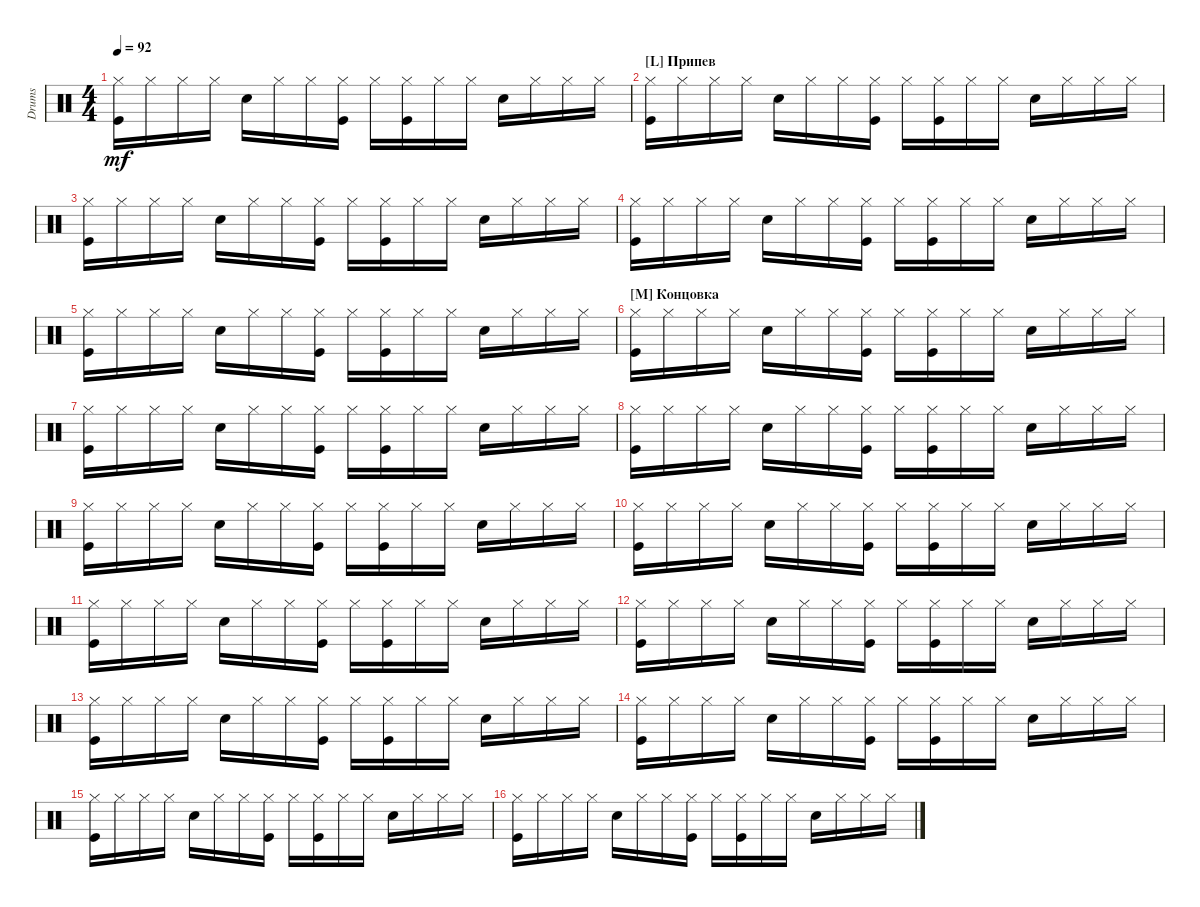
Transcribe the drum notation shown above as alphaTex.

\track ("Drumkit" "Drums") {instrument percussion}
\staff {score}
\articulation defaults
\ts (4 4)
\tempo 92
\clef neutral
\ks c
("Kick (hit)" "Hi-Hat (closed)").16{dy mf} "Hi-Hat (closed)".16 "Hi-Hat (closed)".16 "Hi-Hat (closed)".16 "Snare (hit) 2".16 "Hi-Hat (closed)".16 "Hi-Hat (closed)".16 ("Hi-Hat (closed)" "Kick (hit)").16 "Hi-Hat (closed)".16 ("Hi-Hat (closed)" "Kick (hit)").16 "Hi-Hat (closed)".16 "Hi-Hat (closed)".16 "Snare (hit) 2".16 "Hi-Hat (closed)".16 "Hi-Hat (closed)".16 "Hi-Hat (closed)".16 |
\section ("L" "Припев")
("Kick (hit)" "Hi-Hat (closed)").16 "Hi-Hat (closed)".16 "Hi-Hat (closed)".16 "Hi-Hat (closed)".16 "Snare (hit) 2".16 "Hi-Hat (closed)".16 "Hi-Hat (closed)".16 ("Hi-Hat (closed)" "Kick (hit)").16 "Hi-Hat (closed)".16 ("Hi-Hat (closed)" "Kick (hit)").16 "Hi-Hat (closed)".16 "Hi-Hat (closed)".16 "Snare (hit) 2".16 "Hi-Hat (closed)".16 "Hi-Hat (closed)".16 "Hi-Hat (closed)".16 |
("Kick (hit)" "Hi-Hat (closed)").16 "Hi-Hat (closed)".16 "Hi-Hat (closed)".16 "Hi-Hat (closed)".16 "Snare (hit) 2".16 "Hi-Hat (closed)".16 "Hi-Hat (closed)".16 ("Hi-Hat (closed)" "Kick (hit)").16 "Hi-Hat (closed)".16 ("Hi-Hat (closed)" "Kick (hit)").16 "Hi-Hat (closed)".16 "Hi-Hat (closed)".16 "Snare (hit) 2".16 "Hi-Hat (closed)".16 "Hi-Hat (closed)".16 "Hi-Hat (closed)".16 |
("Kick (hit)" "Hi-Hat (closed)").16 "Hi-Hat (closed)".16 "Hi-Hat (closed)".16 "Hi-Hat (closed)".16 "Snare (hit) 2".16 "Hi-Hat (closed)".16 "Hi-Hat (closed)".16 ("Hi-Hat (closed)" "Kick (hit)").16 "Hi-Hat (closed)".16 ("Hi-Hat (closed)" "Kick (hit)").16 "Hi-Hat (closed)".16 "Hi-Hat (closed)".16 "Snare (hit) 2".16 "Hi-Hat (closed)".16 "Hi-Hat (closed)".16 "Hi-Hat (closed)".16 |
("Kick (hit)" "Hi-Hat (closed)").16 "Hi-Hat (closed)".16 "Hi-Hat (closed)".16 "Hi-Hat (closed)".16 "Snare (hit) 2".16 "Hi-Hat (closed)".16 "Hi-Hat (closed)".16 ("Hi-Hat (closed)" "Kick (hit)").16 "Hi-Hat (closed)".16 ("Hi-Hat (closed)" "Kick (hit)").16 "Hi-Hat (closed)".16 "Hi-Hat (closed)".16 "Snare (hit) 2".16 "Hi-Hat (closed)".16 "Hi-Hat (closed)".16 "Hi-Hat (closed)".16 |
\section ("M" "Концовка")
("Kick (hit)" "Hi-Hat (closed)").16 "Hi-Hat (closed)".16 "Hi-Hat (closed)".16 "Hi-Hat (closed)".16 "Snare (hit) 2".16 "Hi-Hat (closed)".16 "Hi-Hat (closed)".16 ("Hi-Hat (closed)" "Kick (hit)").16 "Hi-Hat (closed)".16 ("Hi-Hat (closed)" "Kick (hit)").16 "Hi-Hat (closed)".16 "Hi-Hat (closed)".16 "Snare (hit) 2".16 "Hi-Hat (closed)".16 "Hi-Hat (closed)".16 "Hi-Hat (closed)".16 |
("Kick (hit)" "Hi-Hat (closed)").16 "Hi-Hat (closed)".16 "Hi-Hat (closed)".16 "Hi-Hat (closed)".16 "Snare (hit) 2".16 "Hi-Hat (closed)".16 "Hi-Hat (closed)".16 ("Hi-Hat (closed)" "Kick (hit)").16 "Hi-Hat (closed)".16 ("Hi-Hat (closed)" "Kick (hit)").16 "Hi-Hat (closed)".16 "Hi-Hat (closed)".16 "Snare (hit) 2".16 "Hi-Hat (closed)".16 "Hi-Hat (closed)".16 "Hi-Hat (closed)".16 |
("Kick (hit)" "Hi-Hat (closed)").16 "Hi-Hat (closed)".16 "Hi-Hat (closed)".16 "Hi-Hat (closed)".16 "Snare (hit) 2".16 "Hi-Hat (closed)".16 "Hi-Hat (closed)".16 ("Hi-Hat (closed)" "Kick (hit)").16 "Hi-Hat (closed)".16 ("Hi-Hat (closed)" "Kick (hit)").16 "Hi-Hat (closed)".16 "Hi-Hat (closed)".16 "Snare (hit) 2".16 "Hi-Hat (closed)".16 "Hi-Hat (closed)".16 "Hi-Hat (closed)".16 |
("Kick (hit)" "Hi-Hat (closed)").16 "Hi-Hat (closed)".16 "Hi-Hat (closed)".16 "Hi-Hat (closed)".16 "Snare (hit) 2".16 "Hi-Hat (closed)".16 "Hi-Hat (closed)".16 ("Hi-Hat (closed)" "Kick (hit)").16 "Hi-Hat (closed)".16 ("Hi-Hat (closed)" "Kick (hit)").16 "Hi-Hat (closed)".16 "Hi-Hat (closed)".16 "Snare (hit) 2".16 "Hi-Hat (closed)".16 "Hi-Hat (closed)".16 "Hi-Hat (closed)".16 |
("Kick (hit)" "Hi-Hat (closed)").16 "Hi-Hat (closed)".16 "Hi-Hat (closed)".16 "Hi-Hat (closed)".16 "Snare (hit) 2".16 "Hi-Hat (closed)".16 "Hi-Hat (closed)".16 ("Hi-Hat (closed)" "Kick (hit)").16 "Hi-Hat (closed)".16 ("Hi-Hat (closed)" "Kick (hit)").16 "Hi-Hat (closed)".16 "Hi-Hat (closed)".16 "Snare (hit) 2".16 "Hi-Hat (closed)".16 "Hi-Hat (closed)".16 "Hi-Hat (closed)".16 |
("Kick (hit)" "Hi-Hat (closed)").16 "Hi-Hat (closed)".16 "Hi-Hat (closed)".16 "Hi-Hat (closed)".16 "Snare (hit) 2".16 "Hi-Hat (closed)".16 "Hi-Hat (closed)".16 ("Hi-Hat (closed)" "Kick (hit)").16 "Hi-Hat (closed)".16 ("Hi-Hat (closed)" "Kick (hit)").16 "Hi-Hat (closed)".16 "Hi-Hat (closed)".16 "Snare (hit) 2".16 "Hi-Hat (closed)".16 "Hi-Hat (closed)".16 "Hi-Hat (closed)".16 |
("Kick (hit)" "Hi-Hat (closed)").16 "Hi-Hat (closed)".16 "Hi-Hat (closed)".16 "Hi-Hat (closed)".16 "Snare (hit) 2".16 "Hi-Hat (closed)".16 "Hi-Hat (closed)".16 ("Hi-Hat (closed)" "Kick (hit)").16 "Hi-Hat (closed)".16 ("Hi-Hat (closed)" "Kick (hit)").16 "Hi-Hat (closed)".16 "Hi-Hat (closed)".16 "Snare (hit) 2".16 "Hi-Hat (closed)".16 "Hi-Hat (closed)".16 "Hi-Hat (closed)".16 |
("Kick (hit)" "Hi-Hat (closed)").16 "Hi-Hat (closed)".16 "Hi-Hat (closed)".16 "Hi-Hat (closed)".16 "Snare (hit) 2".16 "Hi-Hat (closed)".16 "Hi-Hat (closed)".16 ("Hi-Hat (closed)" "Kick (hit)").16 "Hi-Hat (closed)".16 ("Hi-Hat (closed)" "Kick (hit)").16 "Hi-Hat (closed)".16 "Hi-Hat (closed)".16 "Snare (hit) 2".16 "Hi-Hat (closed)".16 "Hi-Hat (closed)".16 "Hi-Hat (closed)".16 |
("Kick (hit)" "Hi-Hat (closed)").16 "Hi-Hat (closed)".16 "Hi-Hat (closed)".16 "Hi-Hat (closed)".16 "Snare (hit) 2".16 "Hi-Hat (closed)".16 "Hi-Hat (closed)".16 ("Hi-Hat (closed)" "Kick (hit)").16 "Hi-Hat (closed)".16 ("Hi-Hat (closed)" "Kick (hit)").16 "Hi-Hat (closed)".16 "Hi-Hat (closed)".16 "Snare (hit) 2".16 "Hi-Hat (closed)".16 "Hi-Hat (closed)".16 "Hi-Hat (closed)".16 |
("Kick (hit)" "Hi-Hat (closed)").16 "Hi-Hat (closed)".16 "Hi-Hat (closed)".16 "Hi-Hat (closed)".16 "Snare (hit) 2".16 "Hi-Hat (closed)".16 "Hi-Hat (closed)".16 ("Hi-Hat (closed)" "Kick (hit)").16 "Hi-Hat (closed)".16 ("Hi-Hat (closed)" "Kick (hit)").16 "Hi-Hat (closed)".16 "Hi-Hat (closed)".16 "Snare (hit) 2".16 "Hi-Hat (closed)".16 "Hi-Hat (closed)".16 "Hi-Hat (closed)".16 |
("Kick (hit)" "Hi-Hat (closed)").16 "Hi-Hat (closed)".16 "Hi-Hat (closed)".16 "Hi-Hat (closed)".16 "Snare (hit) 2".16 "Hi-Hat (closed)".16 "Hi-Hat (closed)".16 ("Hi-Hat (closed)" "Kick (hit)").16 "Hi-Hat (closed)".16 ("Hi-Hat (closed)" "Kick (hit)").16 "Hi-Hat (closed)".16 "Hi-Hat (closed)".16 "Snare (hit) 2".16 "Hi-Hat (closed)".16 "Hi-Hat (closed)".16 "Hi-Hat (closed)".16
